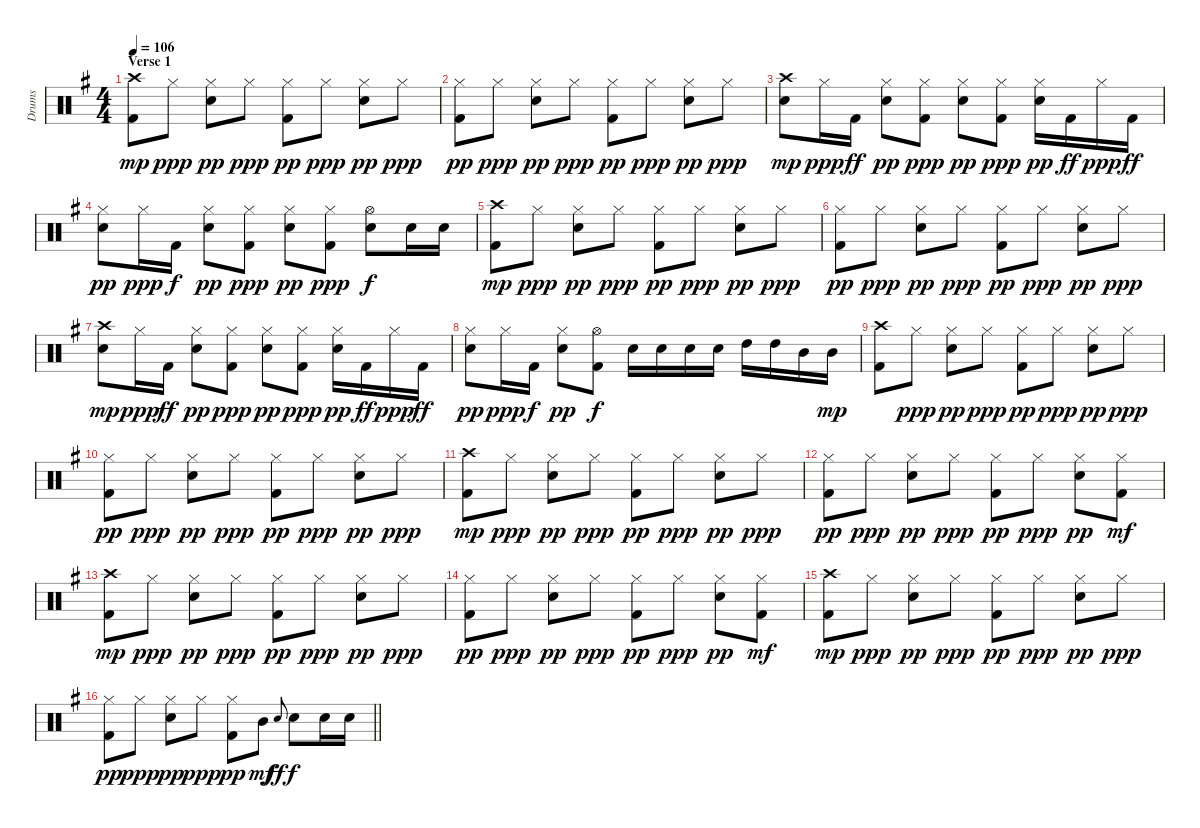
\track ("Drums" "Drums") {instrument percussion}
\staff {score}
\articulation defaults
\ts (4 4)
\section ("" "Verse 1")
\tempo 106
\clef neutral
\ks g
("Kick (hit) 2" "Crash high (hit)").8{dy mp} "Hi-Hat (closed)".8{dy ppp} ("Hi-Hat (closed)" "Electric Snare (hit)").8{dy pp} "Hi-Hat (closed)".8{dy ppp} ("Hi-Hat (closed)" "Kick (hit) 2").8{dy pp} "Hi-Hat (closed)".8{dy ppp} ("Hi-Hat (closed)" "Electric Snare (hit)").8{dy pp} "Hi-Hat (closed)".8{dy ppp} |
("Hi-Hat (closed)" "Kick (hit) 2").8{dy pp} "Hi-Hat (closed)".8{dy ppp} ("Hi-Hat (closed)" "Electric Snare (hit)").8{dy pp} "Hi-Hat (closed)".8{dy ppp} ("Hi-Hat (closed)" "Kick (hit) 2").8{dy pp} "Hi-Hat (closed)".8{dy ppp} ("Hi-Hat (closed)" "Electric Snare (hit)").8{dy pp} "Hi-Hat (closed)".8{dy ppp} |
("Electric Snare (hit)" "Crash high (hit)").8{dy mp} "Hi-Hat (closed)".16{dy ppp} "Kick (hit) 2".16{dy ff} ("Electric Snare (hit)" "Hi-Hat (closed)").8{dy pp} ("Kick (hit) 2" "Hi-Hat (closed)").8{dy ppp} ("Electric Snare (hit)" "Hi-Hat (closed)").8{dy pp} ("Kick (hit) 2" "Hi-Hat (closed)").8{dy ppp} ("Electric Snare (hit)" "Hi-Hat (closed)").16{dy pp} "Kick (hit) 2".16{dy ff} "Hi-Hat (closed)".16{dy ppp} "Kick (hit) 2".16{dy ff} |
("Electric Snare (hit)" "Hi-Hat (closed)").8{dy pp} "Hi-Hat (closed)".16{dy ppp} "Kick (hit) 2".16{dy f} ("Electric Snare (hit)" "Hi-Hat (closed)").8{dy pp} ("Kick (hit) 2" "Hi-Hat (closed)").8{dy ppp} ("Electric Snare (hit)" "Hi-Hat (closed)").8{dy pp} ("Kick (hit) 2" "Hi-Hat (closed)").8{dy ppp} ("Electric Snare (hit)" "Hi-Hat (open)").8{dy f} "Electric Snare (hit)".16 "Electric Snare (hit)".16 |
("Kick (hit) 2" "Crash high (hit)").8{dy mp} "Hi-Hat (closed)".8{dy ppp} ("Hi-Hat (closed)" "Electric Snare (hit)").8{dy pp} "Hi-Hat (closed)".8{dy ppp} ("Hi-Hat (closed)" "Kick (hit) 2").8{dy pp} "Hi-Hat (closed)".8{dy ppp} ("Hi-Hat (closed)" "Electric Snare (hit)").8{dy pp} "Hi-Hat (closed)".8{dy ppp} |
("Hi-Hat (closed)" "Kick (hit) 2").8{dy pp} "Hi-Hat (closed)".8{dy ppp} ("Hi-Hat (closed)" "Electric Snare (hit)").8{dy pp} "Hi-Hat (closed)".8{dy ppp} ("Hi-Hat (closed)" "Kick (hit) 2").8{dy pp} "Hi-Hat (closed)".8{dy ppp} ("Hi-Hat (closed)" "Electric Snare (hit)").8{dy pp} "Hi-Hat (closed)".8{dy ppp} |
("Electric Snare (hit)" "Crash high (hit)").8{dy mp} "Hi-Hat (closed)".16{dy ppp} "Kick (hit) 2".16{dy ff} ("Electric Snare (hit)" "Hi-Hat (closed)").8{dy pp} ("Kick (hit) 2" "Hi-Hat (closed)").8{dy ppp} ("Electric Snare (hit)" "Hi-Hat (closed)").8{dy pp} ("Kick (hit) 2" "Hi-Hat (closed)").8{dy ppp} ("Electric Snare (hit)" "Hi-Hat (closed)").16{dy pp} "Kick (hit) 2".16{dy ff} "Hi-Hat (closed)".16{dy ppp} "Kick (hit) 2".16{dy ff} |
("Electric Snare (hit)" "Hi-Hat (closed)").8{dy pp} "Hi-Hat (closed)".16{dy ppp} "Kick (hit) 2".16{dy f} ("Electric Snare (hit)" "Hi-Hat (closed)").8{dy pp} ("Kick (hit) 2" "Hi-Hat (open)").8{dy f} "Electric Snare (hit)".16 "Electric Snare (hit)".16 "Electric Snare (hit)".16 "Electric Snare (hit)".16 "High Tom (hit)".16 "High Tom (hit)".16 "Mid Tom (hit)".16 "Mid Tom (hit)".16{dy mp} |
("Kick (hit) 2" "Crash high (hit)").8 "Hi-Hat (closed)".8{dy ppp} ("Hi-Hat (closed)" "Electric Snare (hit)").8{dy pp} "Hi-Hat (closed)".8{dy ppp} ("Hi-Hat (closed)" "Kick (hit) 2").8{dy pp} "Hi-Hat (closed)".8{dy ppp} ("Hi-Hat (closed)" "Electric Snare (hit)").8{dy pp} "Hi-Hat (closed)".8{dy ppp} |
("Hi-Hat (closed)" "Kick (hit) 2").8{dy pp} "Hi-Hat (closed)".8{dy ppp} ("Hi-Hat (closed)" "Electric Snare (hit)").8{dy pp} "Hi-Hat (closed)".8{dy ppp} ("Hi-Hat (closed)" "Kick (hit) 2").8{dy pp} "Hi-Hat (closed)".8{dy ppp} ("Hi-Hat (closed)" "Electric Snare (hit)").8{dy pp} "Hi-Hat (closed)".8{dy ppp} |
("Kick (hit) 2" "Crash high (hit)").8{dy mp} "Hi-Hat (closed)".8{dy ppp} ("Hi-Hat (closed)" "Electric Snare (hit)").8{dy pp} "Hi-Hat (closed)".8{dy ppp} ("Hi-Hat (closed)" "Kick (hit) 2").8{dy pp} "Hi-Hat (closed)".8{dy ppp} ("Hi-Hat (closed)" "Electric Snare (hit)").8{dy pp} "Hi-Hat (closed)".8{dy ppp} |
("Hi-Hat (closed)" "Kick (hit) 2").8{dy pp} "Hi-Hat (closed)".8{dy ppp} ("Hi-Hat (closed)" "Electric Snare (hit)").8{dy pp} "Hi-Hat (closed)".8{dy ppp} ("Hi-Hat (closed)" "Kick (hit) 2").8{dy pp} "Hi-Hat (closed)".8{dy ppp} ("Hi-Hat (closed)" "Electric Snare (hit)").8{dy pp} ("Hi-Hat (closed)" "Kick (hit) 2").8{dy mf} |
("Kick (hit) 2" "Crash high (hit)").8{dy mp} "Hi-Hat (closed)".8{dy ppp} ("Hi-Hat (closed)" "Electric Snare (hit)").8{dy pp} "Hi-Hat (closed)".8{dy ppp} ("Hi-Hat (closed)" "Kick (hit) 2").8{dy pp} "Hi-Hat (closed)".8{dy ppp} ("Hi-Hat (closed)" "Electric Snare (hit)").8{dy pp} "Hi-Hat (closed)".8{dy ppp} |
("Hi-Hat (closed)" "Kick (hit) 2").8{dy pp} "Hi-Hat (closed)".8{dy ppp} ("Hi-Hat (closed)" "Electric Snare (hit)").8{dy pp} "Hi-Hat (closed)".8{dy ppp} ("Hi-Hat (closed)" "Kick (hit) 2").8{dy pp} "Hi-Hat (closed)".8{dy ppp} ("Hi-Hat (closed)" "Electric Snare (hit)").8{dy pp} ("Hi-Hat (closed)" "Kick (hit) 2").8{dy mf} |
("Kick (hit) 2" "Crash high (hit)").8{dy mp} "Hi-Hat (closed)".8{dy ppp} ("Hi-Hat (closed)" "Electric Snare (hit)").8{dy pp} "Hi-Hat (closed)".8{dy ppp} ("Hi-Hat (closed)" "Kick (hit) 2").8{dy pp} "Hi-Hat (closed)".8{dy ppp} ("Hi-Hat (closed)" "Electric Snare (hit)").8{dy pp} "Hi-Hat (closed)".8{dy ppp} |
\barLineRight lightlight
("Hi-Hat (closed)" "Kick (hit) 2").8{dy pp} "Hi-Hat (closed)".8{dy ppp} ("Hi-Hat (closed)" "Electric Snare (hit)").8{dy pp} "Hi-Hat (closed)".8{dy ppp} ("Hi-Hat (closed)" "Kick (hit) 2").8{dy pp} "Mid Tom (hit)".8{dy mf} "Electric Snare (hit)".8{gr onbeat dy ff} "Electric Snare (hit)".8{dy f} "Electric Snare (hit)".16 "Electric Snare (hit)".16
